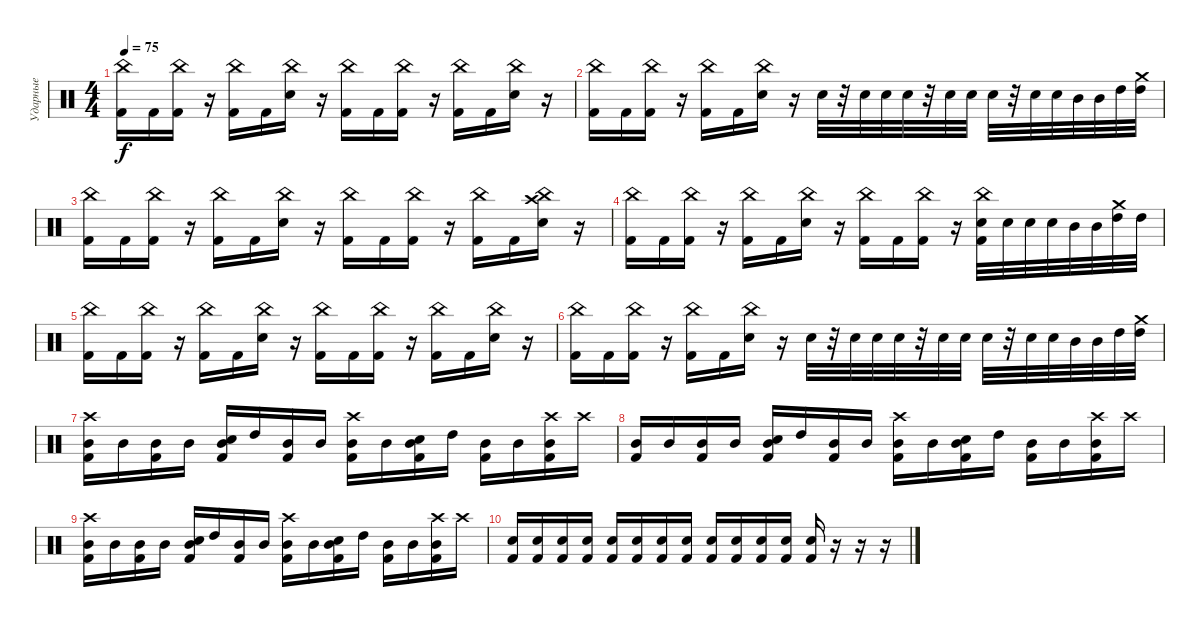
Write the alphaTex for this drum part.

\track ("Ударные" "Ударные") {instrument percussion}
\staff {score}
\articulation defaults
\ts (4 4)
\tempo 75
\clef neutral
\ks c
("Kick (hit) 2" "China (hit)").16{dy f} "Kick (hit) 2".16 ("Kick (hit) 2" "China (hit)").16 r.16 ("Kick (hit) 2" "China (hit)").16 "Kick (hit) 2".16 ("Electric Snare (hit)" "China (hit)").16 r.16 ("Kick (hit) 2" "China (hit)").16 "Kick (hit) 2".16 ("Kick (hit) 2" "China (hit)").16 r.16 ("Kick (hit) 2" "China (hit)").16 "Kick (hit) 2".16 ("Electric Snare (hit)" "China (hit)").16 r.16 |
("Kick (hit) 2" "China (hit)").16 "Kick (hit) 2".16 ("Kick (hit) 2" "China (hit)").16 r.16 ("Kick (hit) 2" "China (hit)").16 "Kick (hit) 2".16 ("Electric Snare (hit)" "China (hit)").16 r.16 "Electric Snare (hit)".32 r.32 "Electric Snare (hit)".32 "Electric Snare (hit)".32 "Electric Snare (hit)".32 r.32 "Electric Snare (hit)".32 "Electric Snare (hit)".32 "Electric Snare (hit)".32 r.32 "Electric Snare (hit)".32 "Electric Snare (hit)".32 "Mid Tom (hit)".32 "Mid Tom (hit)".32 "High Tom (hit)".32 ("High Tom (hit)" "Crash medium (hit)").32 |
("Kick (hit) 2" "China (hit)").16 "Kick (hit) 2".16 ("Kick (hit) 2" "China (hit)").16 r.16 ("Kick (hit) 2" "China (hit)").16 "Kick (hit) 2".16 ("Electric Snare (hit)" "China (hit)").16 r.16 ("Kick (hit) 2" "China (hit)").16 "Kick (hit) 2".16 ("Kick (hit) 2" "China (hit)").16 r.16 ("Kick (hit) 2" "China (hit)").16 "Kick (hit) 2".16 ("Electric Snare (hit)" "Crash high (hit)" "China (hit)").16 r.16 |
("Kick (hit) 2" "China (hit)").16 "Kick (hit) 2".16 ("Kick (hit) 2" "China (hit)").16 r.16 ("Kick (hit) 2" "China (hit)").16 "Kick (hit) 2".16 ("Electric Snare (hit)" "China (hit)").16 r.16 ("Kick (hit) 2" "China (hit)").16 "Kick (hit) 2".16 ("Kick (hit) 2" "China (hit)").16 r.16 ("Kick (hit) 2" "Electric Snare (hit)" "China (hit)").32 "Electric Snare (hit)".32 "Electric Snare (hit)".32 "Electric Snare (hit)".32 "Mid Tom (hit)".32 "Mid Tom (hit)".32 ("High Tom (hit)" "Crash medium (hit)").32 "High Tom (hit)".32 |
("Kick (hit) 2" "China (hit)").16 "Kick (hit) 2".16 ("Kick (hit) 2" "China (hit)").16 r.16 ("Kick (hit) 2" "China (hit)").16 "Kick (hit) 2".16 ("Electric Snare (hit)" "China (hit)").16 r.16 ("Kick (hit) 2" "China (hit)").16 "Kick (hit) 2".16 ("Kick (hit) 2" "China (hit)").16 r.16 ("Kick (hit) 2" "China (hit)").16 "Kick (hit) 2".16 ("Electric Snare (hit)" "China (hit)").16 r.16 |
("Kick (hit) 2" "China (hit)").16 "Kick (hit) 2".16 ("Kick (hit) 2" "China (hit)").16 r.16 ("Kick (hit) 2" "China (hit)").16 "Kick (hit) 2".16 ("Electric Snare (hit)" "China (hit)").16 r.16 "Electric Snare (hit)".32 r.32 "Electric Snare (hit)".32 "Electric Snare (hit)".32 "Electric Snare (hit)".32 r.32 "Electric Snare (hit)".32 "Electric Snare (hit)".32 "Electric Snare (hit)".32 r.32 "Electric Snare (hit)".32 "Electric Snare (hit)".32 "Mid Tom (hit)".32 "Mid Tom (hit)".32 "High Tom (hit)".32 ("High Tom (hit)" "Crash medium (hit)").32 |
("Kick (hit) 2" "Mid Tom (hit)" "Crash high (hit)").16 "Mid Tom (hit)".16 ("Kick (hit) 2" "Mid Tom (hit)").16 "Mid Tom (hit)".16 ("Kick (hit) 2" "Mid Tom (hit)" "Electric Snare (hit)").16 "High Tom (hit)".16 ("Kick (hit) 2" "Mid Tom (hit)").16 "Mid Tom (hit)".16 ("Kick (hit) 2" "Mid Tom (hit)" "Crash high (hit)").16 "Mid Tom (hit)".16 ("Kick (hit) 2" "Mid Tom (hit)" "Electric Snare (hit)").16 "High Tom (hit)".16 ("Kick (hit) 2" "Mid Tom (hit)").16 "Mid Tom (hit)".16 ("Kick (hit) 2" "Mid Tom (hit)" "Crash high (hit)").16 "Crash high (hit)".16 |
("Kick (hit) 2" "Mid Tom (hit)").16 "Mid Tom (hit)".16 ("Kick (hit) 2" "Mid Tom (hit)").16 "Mid Tom (hit)".16 ("Kick (hit) 2" "Mid Tom (hit)" "Electric Snare (hit)").16 "High Tom (hit)".16 ("Kick (hit) 2" "Mid Tom (hit)").16 "Mid Tom (hit)".16 ("Kick (hit) 2" "Mid Tom (hit)" "Crash high (hit)").16 "Mid Tom (hit)".16 ("Kick (hit) 2" "Mid Tom (hit)" "Electric Snare (hit)").16 "High Tom (hit)".16 ("Kick (hit) 2" "Mid Tom (hit)").16 "Mid Tom (hit)".16 ("Kick (hit) 2" "Mid Tom (hit)" "Crash high (hit)").16 "Crash high (hit)".16 |
("Kick (hit) 2" "Mid Tom (hit)" "Crash high (hit)").16 "Mid Tom (hit)".16 ("Kick (hit) 2" "Mid Tom (hit)").16 "Mid Tom (hit)".16 ("Kick (hit) 2" "Mid Tom (hit)" "Electric Snare (hit)").16 "High Tom (hit)".16 ("Kick (hit) 2" "Mid Tom (hit)").16 "Mid Tom (hit)".16 ("Kick (hit) 2" "Mid Tom (hit)" "Crash high (hit)").16 "Mid Tom (hit)".16 ("Kick (hit) 2" "Mid Tom (hit)" "Electric Snare (hit)").16 "High Tom (hit)".16 ("Kick (hit) 2" "Mid Tom (hit)").16 "Mid Tom (hit)".16 ("Kick (hit) 2" "Mid Tom (hit)" "Crash high (hit)").16 "Crash high (hit)".16 |
("Kick (hit) 2" "Electric Snare (hit)").16 ("Kick (hit) 2" "Electric Snare (hit)").16 ("Kick (hit) 2" "Electric Snare (hit)").16 ("Kick (hit) 2" "Electric Snare (hit)").16 ("Kick (hit) 2" "Electric Snare (hit)").16 ("Kick (hit) 2" "Electric Snare (hit)").16 ("Kick (hit) 2" "Electric Snare (hit)").16 ("Kick (hit) 2" "Electric Snare (hit)").16 ("Kick (hit) 2" "Electric Snare (hit)").16 ("Kick (hit) 2" "Electric Snare (hit)").16 ("Kick (hit) 2" "Electric Snare (hit)").16 ("Kick (hit) 2" "Electric Snare (hit)").16 ("Kick (hit) 2" "Electric Snare (hit)").16 r.16 r.16 r.16
